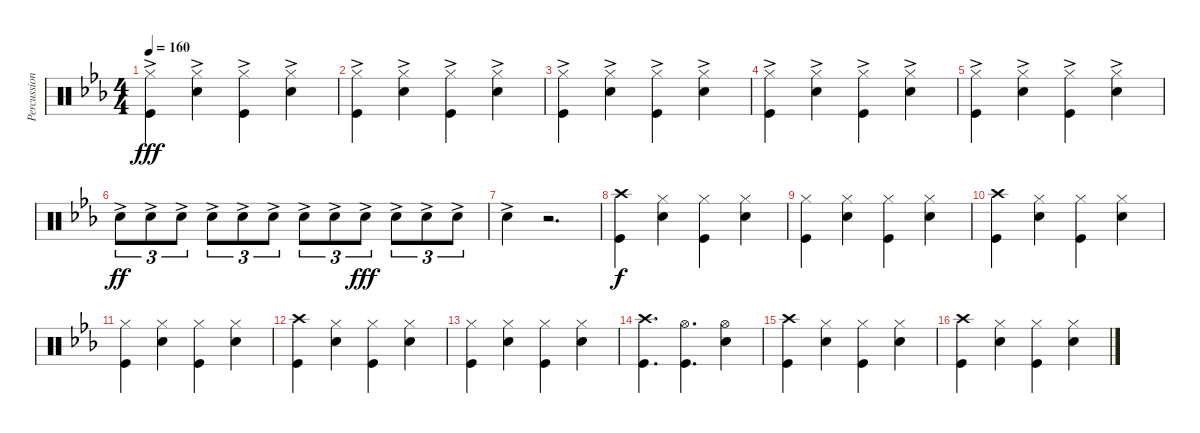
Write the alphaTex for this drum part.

\track ("Percussion" "Percussion") {instrument percussion}
\staff {score}
\articulation defaults
\ts (4 4)
\tempo 160
\clef neutral
\ks eb
("Kick (hit)"{ac} "Hi-Hat (closed)").4{dy fff} ("Snare (hit) 2"{ac} "Hi-Hat (closed)").4 ("Kick (hit)"{ac} "Hi-Hat (closed)").4 ("Snare (hit) 2"{ac} "Hi-Hat (closed)").4 |
("Kick (hit)"{ac} "Hi-Hat (closed)").4 ("Snare (hit) 2"{ac} "Hi-Hat (closed)").4 ("Kick (hit)"{ac} "Hi-Hat (closed)").4 ("Snare (hit) 2"{ac} "Hi-Hat (closed)").4 |
("Kick (hit)"{ac} "Hi-Hat (closed)").4 ("Snare (hit) 2"{ac} "Hi-Hat (closed)").4 ("Kick (hit)"{ac} "Hi-Hat (closed)").4 ("Snare (hit) 2"{ac} "Hi-Hat (closed)").4 |
("Kick (hit)"{ac} "Hi-Hat (closed)").4 ("Snare (hit) 2"{ac} "Hi-Hat (closed)").4 ("Kick (hit)"{ac} "Hi-Hat (closed)").4 ("Snare (hit) 2"{ac} "Hi-Hat (closed)").4 |
("Kick (hit)"{ac} "Hi-Hat (closed)").4 ("Snare (hit) 2"{ac} "Hi-Hat (closed)").4 ("Kick (hit)"{ac} "Hi-Hat (closed)").4 ("Snare (hit) 2"{ac} "Hi-Hat (closed)").4 |
"Snare (hit) 2"{ac}.8{tu (3 2) dy ff} "Snare (hit) 2"{ac}.8{tu (3 2)} "Snare (hit) 2"{ac}.8{tu (3 2)} "Snare (hit) 2"{ac}.8{tu (3 2)} "Snare (hit) 2"{ac}.8{tu (3 2)} "Snare (hit) 2"{ac}.8{tu (3 2)} "Snare (hit) 2"{ac}.8{tu (3 2)} "Snare (hit) 2"{ac}.8{tu (3 2)} "Snare (hit) 2"{ac}.8{tu (3 2) dy fff} "Snare (hit) 2"{ac}.8{tu (3 2)} "Snare (hit) 2"{ac}.8{tu (3 2)} "Snare (hit) 2"{ac}.8{tu (3 2)} |
"Snare (hit) 2"{ac}.4 r.2{d} |
("Crash high (hit)" "Kick (hit)").4{dy f} ("Hi-Hat (closed)" "Snare (hit) 2").4 ("Hi-Hat (closed)" "Kick (hit)").4 ("Hi-Hat (closed)" "Snare (hit) 2").4 |
("Hi-Hat (closed)" "Kick (hit)").4 ("Hi-Hat (closed)" "Snare (hit) 2").4 ("Hi-Hat (closed)" "Kick (hit)").4 ("Hi-Hat (closed)" "Snare (hit) 2").4 |
("Crash high (hit)" "Kick (hit)").4 ("Hi-Hat (closed)" "Snare (hit) 2").4 ("Hi-Hat (closed)" "Kick (hit)").4 ("Hi-Hat (closed)" "Snare (hit) 2").4 |
("Hi-Hat (closed)" "Kick (hit)").4 ("Hi-Hat (closed)" "Snare (hit) 2").4 ("Hi-Hat (closed)" "Kick (hit)").4 ("Hi-Hat (closed)" "Snare (hit) 2").4 |
("Crash high (hit)" "Kick (hit)").4 ("Hi-Hat (closed)" "Snare (hit) 2").4 ("Hi-Hat (closed)" "Kick (hit)").4 ("Hi-Hat (closed)" "Snare (hit) 2").4 |
("Hi-Hat (closed)" "Kick (hit)").4 ("Hi-Hat (closed)" "Snare (hit) 2").4 ("Hi-Hat (closed)" "Kick (hit)").4 ("Hi-Hat (closed)" "Snare (hit) 2").4 |
("Kick (hit)" "Crash high (hit)").4{d} ("Hi-Hat (open)" "Kick (hit)").4{d} ("Hi-Hat (open)" "Snare (hit) 2").4 |
("Kick (hit)" "Crash high (hit)").4 ("Snare (hit) 2" "Hi-Hat (closed)").4 ("Kick (hit)" "Hi-Hat (closed)").4 ("Snare (hit) 2" "Hi-Hat (closed)").4 |
("Crash high (hit)" "Kick (hit)").4 ("Hi-Hat (closed)" "Snare (hit) 2").4 ("Hi-Hat (closed)" "Kick (hit)").4 ("Hi-Hat (closed)" "Snare (hit) 2").4
